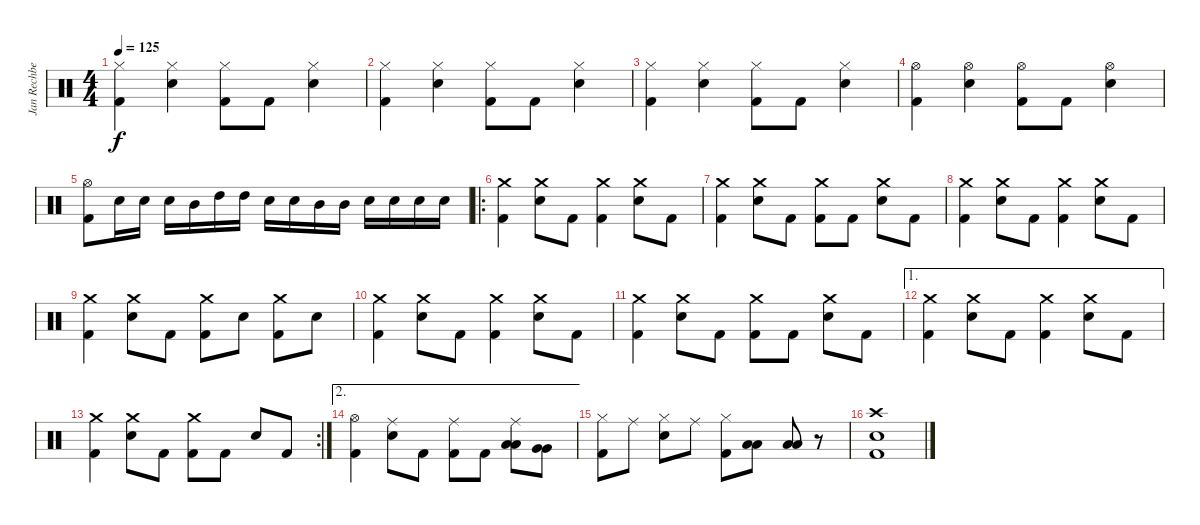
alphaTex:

\track ("Jan Rechberger" "Jan Rechbe") {instrument percussion}
\staff {score}
\articulation defaults
\ts (4 4)
\tempo 125
\clef neutral
\ks c
("Hi-Hat (closed)" "Kick (hit) 2").4{dy f} ("Hi-Hat (closed)" "Electric Snare (hit)").4 ("Hi-Hat (closed)" "Kick (hit) 2").8 "Kick (hit) 2".8 ("Hi-Hat (closed)" "Electric Snare (hit)").4 |
("Hi-Hat (closed)" "Kick (hit) 2").4 ("Hi-Hat (closed)" "Electric Snare (hit)").4 ("Hi-Hat (closed)" "Kick (hit) 2").8 "Kick (hit) 2".8 ("Hi-Hat (closed)" "Electric Snare (hit)").4 |
("Hi-Hat (closed)" "Kick (hit) 2").4 ("Hi-Hat (closed)" "Electric Snare (hit)").4 ("Hi-Hat (closed)" "Kick (hit) 2").8 "Kick (hit) 2".8 ("Hi-Hat (closed)" "Electric Snare (hit)").4 |
("Hi-Hat (open)" "Kick (hit) 2").4 ("Hi-Hat (open)" "Electric Snare (hit)").4 ("Hi-Hat (open)" "Kick (hit) 2").8 "Kick (hit) 2".8 ("Hi-Hat (open)" "Electric Snare (hit)").4 |
("Hi-Hat (open)" "Kick (hit) 2").8 "Electric Snare (hit)".16 "Electric Snare (hit)".16 "Electric Snare (hit)".16 "Mid Tom (hit)".16 "High Tom (hit)".16 "High Tom (hit)".16 "Electric Snare (hit)".16 "Electric Snare (hit)".16 "Mid Tom (hit)".16 "Mid Tom (hit)".16 "Electric Snare (hit)".16 "Electric Snare (hit)".16 "Electric Snare (hit)".16 "Electric Snare (hit)".16 |
\ro
("Crash medium (hit)" "Kick (hit) 2").4 ("Crash medium (hit)" "Electric Snare (hit)").8 "Kick (hit) 2".8 ("Crash medium (hit)" "Kick (hit) 2").4 ("Crash medium (hit)" "Electric Snare (hit)").8 "Kick (hit) 2".8 |
("Crash medium (hit)" "Kick (hit) 2").4 ("Crash medium (hit)" "Electric Snare (hit)").8 "Kick (hit) 2".8 ("Crash medium (hit)" "Kick (hit) 2").8 "Kick (hit) 2".8 ("Crash medium (hit)" "Electric Snare (hit)").8 "Kick (hit) 2".8 |
("Crash medium (hit)" "Kick (hit) 2").4 ("Crash medium (hit)" "Electric Snare (hit)").8 "Kick (hit) 2".8 ("Crash medium (hit)" "Kick (hit) 2").4 ("Crash medium (hit)" "Electric Snare (hit)").8 "Kick (hit) 2".8 |
("Crash medium (hit)" "Kick (hit) 2").4 ("Crash medium (hit)" "Electric Snare (hit)").8 "Kick (hit) 2".8 ("Crash medium (hit)" "Kick (hit) 2").8 "Electric Snare (hit)".8 ("Crash medium (hit)" "Kick (hit) 2").8 "Electric Snare (hit)".8 |
("Crash medium (hit)" "Kick (hit) 2").4 ("Crash medium (hit)" "Electric Snare (hit)").8 "Kick (hit) 2".8 ("Crash medium (hit)" "Kick (hit) 2").4 ("Crash medium (hit)" "Electric Snare (hit)").8 "Kick (hit) 2".8 |
("Crash medium (hit)" "Kick (hit) 2").4 ("Crash medium (hit)" "Electric Snare (hit)").8 "Kick (hit) 2".8 ("Crash medium (hit)" "Kick (hit) 2").8 "Kick (hit) 2".8 ("Crash medium (hit)" "Electric Snare (hit)").8 "Kick (hit) 2".8 |
\ae 1
("Crash medium (hit)" "Kick (hit) 2").4 ("Crash medium (hit)" "Electric Snare (hit)").8 "Kick (hit) 2".8 ("Crash medium (hit)" "Kick (hit) 2").4 ("Crash medium (hit)" "Electric Snare (hit)").8 "Kick (hit) 2".8 |
\rc 2
("Crash medium (hit)" "Kick (hit) 2").4 ("Crash medium (hit)" "Electric Snare (hit)").8 "Kick (hit) 2".8 ("Crash medium (hit)" "Kick (hit) 2").8 "Kick (hit) 2".8 "Electric Snare (hit)".8 "Kick (hit) 2".8 |
\ae 2
("Hi-Hat (open)" "Kick (hit) 2").4 ("Ride (middle)" "Electric Snare (hit)").8 "Kick (hit) 2".8 ("Ride (middle)" "Kick (hit) 2").8 "Kick (hit) 2".8 ("Ride (middle)" "Low Tom (hit)" "Low Tom (hit)").8 ("Very Low Tom (hit)" "Very Low Tom (hit)").8 |
("Hi-Hat (closed)" "Kick (hit) 2").8 "Ride (middle)".8 ("Hi-Hat (closed)" "Electric Snare (hit)").8 "Ride (middle)".8 ("Hi-Hat (closed)" "Kick (hit) 2").8 ("Low Tom (hit)" "Low Tom (hit)").8 ("Low Tom (hit)" "Low Tom (hit)").8 r.8 |
("Crash high (hit)" "Electric Snare (hit)" "Kick (hit) 2").1
